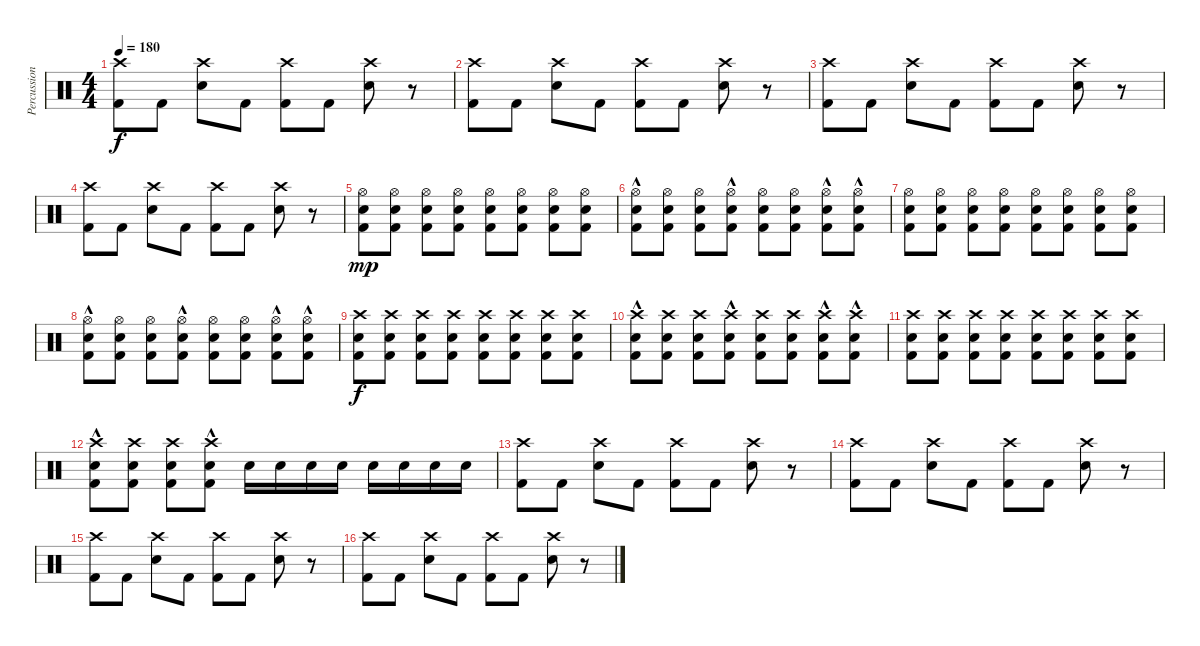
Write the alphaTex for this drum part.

\track ("Percussion" "Percussion") {instrument percussion}
\staff {score}
\articulation defaults
\ts (4 4)
\tempo 180
\clef neutral
\ks c
("Crash high (hit)" "Kick (hit) 2").8{dy f} "Kick (hit) 2".8 ("Crash high (hit)" "Electric Snare (hit)").8 "Kick (hit) 2".8 ("Crash high (hit)" "Kick (hit) 2").8 "Kick (hit) 2".8 ("Crash high (hit)" "Electric Snare (hit)").8 r.8 |
("Crash high (hit)" "Kick (hit) 2").8 "Kick (hit) 2".8 ("Crash high (hit)" "Electric Snare (hit)").8 "Kick (hit) 2".8 ("Crash high (hit)" "Kick (hit) 2").8 "Kick (hit) 2".8 ("Crash high (hit)" "Electric Snare (hit)").8 r.8 |
("Crash high (hit)" "Kick (hit) 2").8 "Kick (hit) 2".8 ("Crash high (hit)" "Electric Snare (hit)").8 "Kick (hit) 2".8 ("Crash high (hit)" "Kick (hit) 2").8 "Kick (hit) 2".8 ("Crash high (hit)" "Electric Snare (hit)").8 r.8 |
("Crash high (hit)" "Kick (hit) 2").8 "Kick (hit) 2".8 ("Crash high (hit)" "Electric Snare (hit)").8 "Kick (hit) 2".8 ("Crash high (hit)" "Kick (hit) 2").8 "Kick (hit) 2".8 ("Crash high (hit)" "Electric Snare (hit)").8 r.8 |
("Hi-Hat (open)" "Electric Snare (hit)" "Kick (hit) 2").8{dy mp} ("Hi-Hat (open)" "Electric Snare (hit)" "Kick (hit) 2").8 ("Hi-Hat (open)" "Electric Snare (hit)" "Kick (hit) 2").8 ("Hi-Hat (open)" "Electric Snare (hit)" "Kick (hit) 2").8 ("Hi-Hat (open)" "Electric Snare (hit)" "Kick (hit) 2").8 ("Hi-Hat (open)" "Electric Snare (hit)" "Kick (hit) 2").8 ("Hi-Hat (open)" "Electric Snare (hit)" "Kick (hit) 2").8 ("Hi-Hat (open)" "Electric Snare (hit)" "Kick (hit) 2").8 |
("Hi-Hat (open)" "Electric Snare (hit)"{hac} "Kick (hit) 2").8 ("Hi-Hat (open)" "Electric Snare (hit)" "Kick (hit) 2").8 ("Hi-Hat (open)" "Electric Snare (hit)" "Kick (hit) 2").8 ("Hi-Hat (open)" "Electric Snare (hit)"{hac} "Kick (hit) 2").8 ("Hi-Hat (open)" "Electric Snare (hit)" "Kick (hit) 2").8 ("Hi-Hat (open)" "Electric Snare (hit)" "Kick (hit) 2").8 ("Hi-Hat (open)" "Electric Snare (hit)"{hac} "Kick (hit) 2").8 ("Hi-Hat (open)" "Electric Snare (hit)"{hac} "Kick (hit) 2").8 |
("Hi-Hat (open)" "Electric Snare (hit)" "Kick (hit) 2").8 ("Hi-Hat (open)" "Electric Snare (hit)" "Kick (hit) 2").8 ("Hi-Hat (open)" "Electric Snare (hit)" "Kick (hit) 2").8 ("Hi-Hat (open)" "Electric Snare (hit)" "Kick (hit) 2").8 ("Hi-Hat (open)" "Electric Snare (hit)" "Kick (hit) 2").8 ("Hi-Hat (open)" "Electric Snare (hit)" "Kick (hit) 2").8 ("Hi-Hat (open)" "Electric Snare (hit)" "Kick (hit) 2").8 ("Hi-Hat (open)" "Electric Snare (hit)" "Kick (hit) 2").8 |
("Hi-Hat (open)" "Electric Snare (hit)"{hac} "Kick (hit) 2").8 ("Hi-Hat (open)" "Electric Snare (hit)" "Kick (hit) 2").8 ("Hi-Hat (open)" "Electric Snare (hit)" "Kick (hit) 2").8 ("Hi-Hat (open)" "Electric Snare (hit)"{hac} "Kick (hit) 2").8 ("Hi-Hat (open)" "Electric Snare (hit)" "Kick (hit) 2").8 ("Hi-Hat (open)" "Electric Snare (hit)" "Kick (hit) 2").8 ("Hi-Hat (open)" "Electric Snare (hit)"{hac} "Kick (hit) 2").8 ("Hi-Hat (open)" "Electric Snare (hit)"{hac} "Kick (hit) 2").8 |
("Crash high (hit)" "Electric Snare (hit)" "Kick (hit) 2").8{dy f} ("Crash high (hit)" "Electric Snare (hit)" "Kick (hit) 2").8 ("Crash high (hit)" "Electric Snare (hit)" "Kick (hit) 2").8 ("Crash high (hit)" "Electric Snare (hit)" "Kick (hit) 2").8 ("Crash high (hit)" "Electric Snare (hit)" "Kick (hit) 2").8 ("Crash high (hit)" "Electric Snare (hit)" "Kick (hit) 2").8 ("Crash high (hit)" "Electric Snare (hit)" "Kick (hit) 2").8 ("Crash high (hit)" "Electric Snare (hit)" "Kick (hit) 2").8 |
("Crash high (hit)" "Electric Snare (hit)"{hac} "Kick (hit) 2").8 ("Crash high (hit)" "Electric Snare (hit)" "Kick (hit) 2").8 ("Crash high (hit)" "Electric Snare (hit)" "Kick (hit) 2").8 ("Crash high (hit)" "Electric Snare (hit)"{hac} "Kick (hit) 2").8 ("Crash high (hit)" "Electric Snare (hit)" "Kick (hit) 2").8 ("Crash high (hit)" "Electric Snare (hit)" "Kick (hit) 2").8 ("Crash high (hit)" "Electric Snare (hit)"{hac} "Kick (hit) 2").8 ("Crash high (hit)" "Electric Snare (hit)"{hac} "Kick (hit) 2").8 |
("Crash high (hit)" "Electric Snare (hit)" "Kick (hit) 2").8 ("Crash high (hit)" "Electric Snare (hit)" "Kick (hit) 2").8 ("Crash high (hit)" "Electric Snare (hit)" "Kick (hit) 2").8 ("Crash high (hit)" "Electric Snare (hit)" "Kick (hit) 2").8 ("Crash high (hit)" "Electric Snare (hit)" "Kick (hit) 2").8 ("Crash high (hit)" "Electric Snare (hit)" "Kick (hit) 2").8 ("Crash high (hit)" "Electric Snare (hit)" "Kick (hit) 2").8 ("Crash high (hit)" "Electric Snare (hit)" "Kick (hit) 2").8 |
("Crash high (hit)" "Electric Snare (hit)"{hac} "Kick (hit) 2").8 ("Crash high (hit)" "Electric Snare (hit)" "Kick (hit) 2").8 ("Crash high (hit)" "Electric Snare (hit)" "Kick (hit) 2").8 ("Crash high (hit)" "Electric Snare (hit)"{hac} "Kick (hit) 2").8 "Electric Snare (hit)".16 "Electric Snare (hit)".16 "Electric Snare (hit)".16 "Electric Snare (hit)".16 "Electric Snare (hit)".16 "Electric Snare (hit)".16 "Electric Snare (hit)".16 "Electric Snare (hit)".16 |
("Crash high (hit)" "Kick (hit) 2").8 "Kick (hit) 2".8 ("Crash high (hit)" "Electric Snare (hit)").8 "Kick (hit) 2".8 ("Crash high (hit)" "Kick (hit) 2").8 "Kick (hit) 2".8 ("Crash high (hit)" "Electric Snare (hit)").8 r.8 |
("Crash high (hit)" "Kick (hit) 2").8 "Kick (hit) 2".8 ("Crash high (hit)" "Electric Snare (hit)").8 "Kick (hit) 2".8 ("Crash high (hit)" "Kick (hit) 2").8 "Kick (hit) 2".8 ("Crash high (hit)" "Electric Snare (hit)").8 r.8 |
("Crash high (hit)" "Kick (hit) 2").8 "Kick (hit) 2".8 ("Crash high (hit)" "Electric Snare (hit)").8 "Kick (hit) 2".8 ("Crash high (hit)" "Kick (hit) 2").8 "Kick (hit) 2".8 ("Crash high (hit)" "Electric Snare (hit)").8 r.8 |
("Crash high (hit)" "Kick (hit) 2").8 "Kick (hit) 2".8 ("Crash high (hit)" "Electric Snare (hit)").8 "Kick (hit) 2".8 ("Crash high (hit)" "Kick (hit) 2").8 "Kick (hit) 2".8 ("Crash high (hit)" "Electric Snare (hit)").8 r.8
